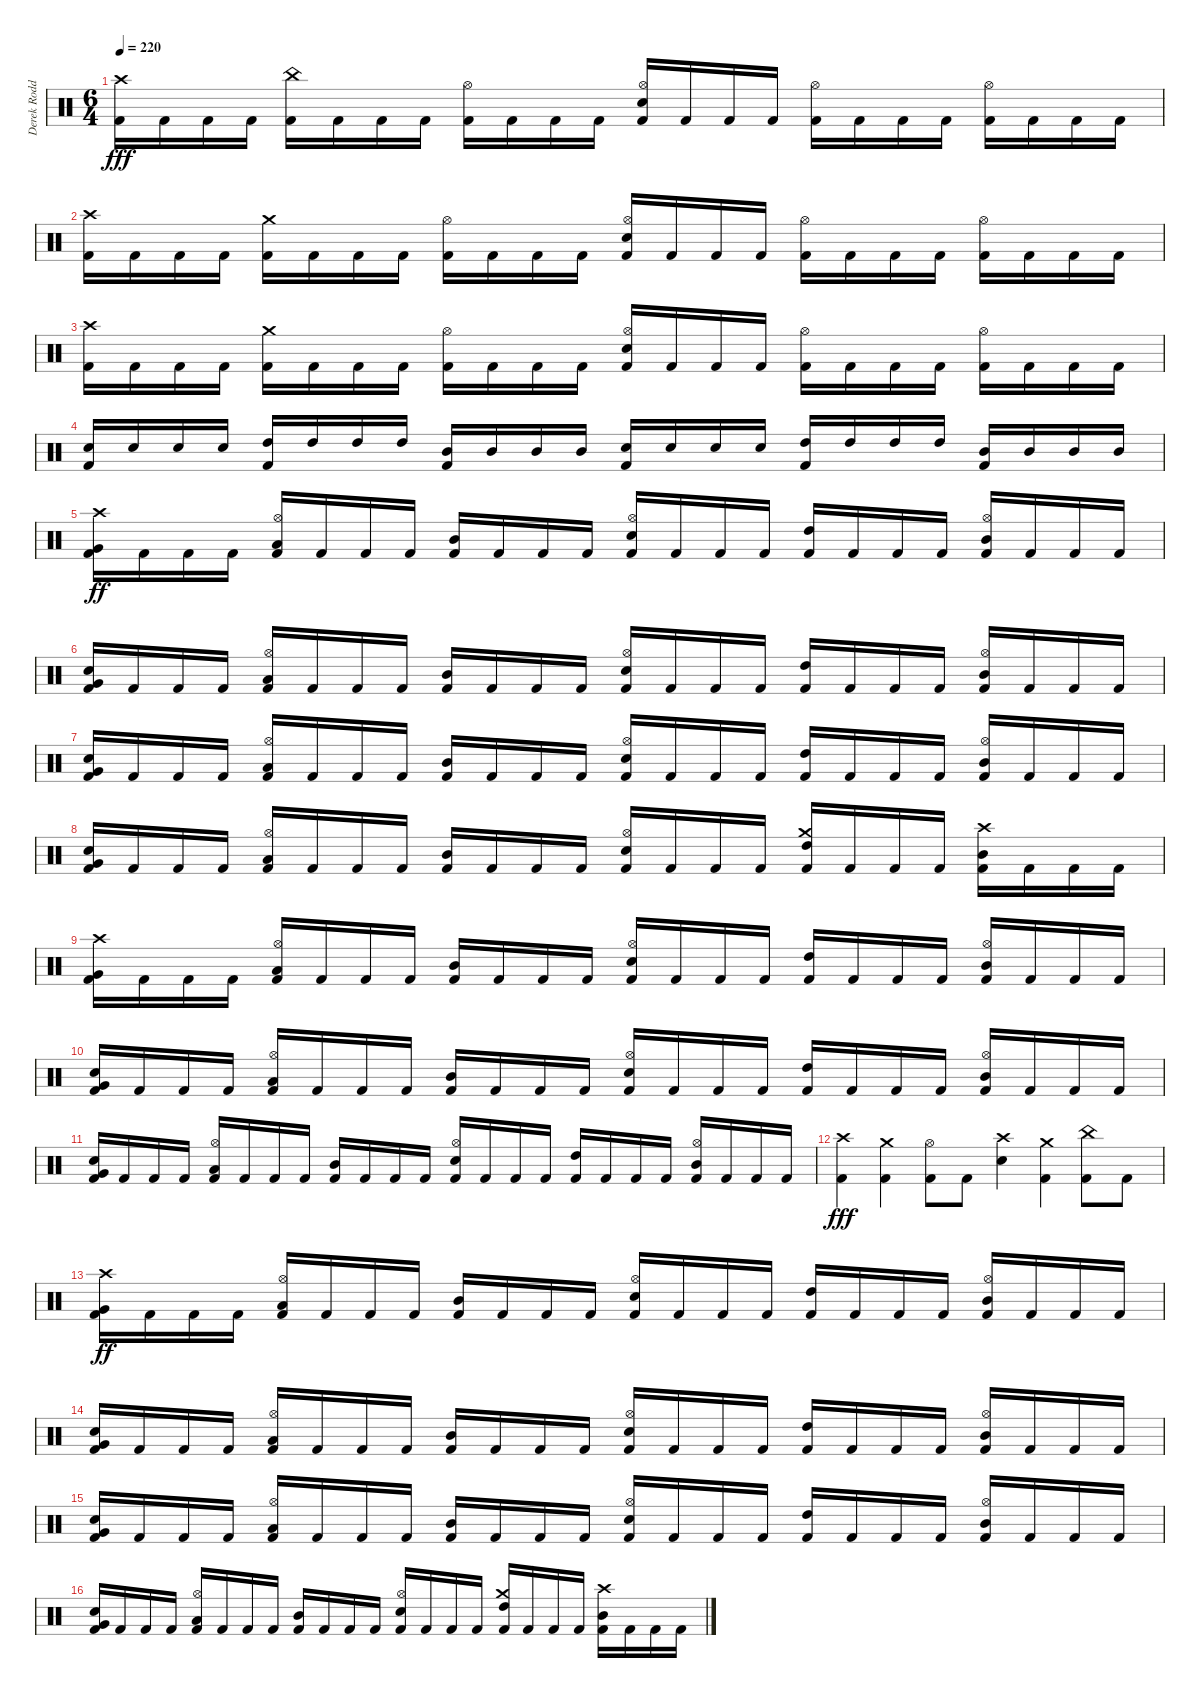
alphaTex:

\track ("Derek Roddy" "Derek Rodd") {instrument percussion}
\staff {score}
\articulation defaults
\ts (6 4)
\tempo 220
\clef neutral
\ks c
("Crash high (hit)" "Kick (hit) 2").16{dy fff} "Kick (hit) 2".16 "Kick (hit) 2".16 "Kick (hit) 2".16 ("China (hit)" "Kick (hit) 2").16 "Kick (hit) 2".16 "Kick (hit) 2".16 "Kick (hit) 2".16 ("Hi-Hat (open)" "Kick (hit) 2").16 "Kick (hit) 2".16 "Kick (hit) 2".16 "Kick (hit) 2".16 ("Hi-Hat (open)" "Snare (hit) 2" "Kick (hit) 2").16 "Kick (hit) 2".16 "Kick (hit) 2".16 "Kick (hit) 2".16 ("Hi-Hat (open)" "Kick (hit) 2").16 "Kick (hit) 2".16 "Kick (hit) 2".16 "Kick (hit) 2".16 ("Hi-Hat (open)" "Kick (hit) 2").16 "Kick (hit) 2".16 "Kick (hit) 2".16 "Kick (hit) 2".16 |
("Crash high (hit)" "Kick (hit) 2").16 "Kick (hit) 2".16 "Kick (hit) 2".16 "Kick (hit) 2".16 ("Crash medium (hit)" "Kick (hit) 2").16 "Kick (hit) 2".16 "Kick (hit) 2".16 "Kick (hit) 2".16 ("Hi-Hat (open)" "Kick (hit) 2").16 "Kick (hit) 2".16 "Kick (hit) 2".16 "Kick (hit) 2".16 ("Hi-Hat (open)" "Snare (hit) 2" "Kick (hit) 2").16 "Kick (hit) 2".16 "Kick (hit) 2".16 "Kick (hit) 2".16 ("Hi-Hat (open)" "Kick (hit) 2").16 "Kick (hit) 2".16 "Kick (hit) 2".16 "Kick (hit) 2".16 ("Hi-Hat (open)" "Kick (hit) 2").16 "Kick (hit) 2".16 "Kick (hit) 2".16 "Kick (hit) 2".16 |
("Crash high (hit)" "Kick (hit) 2").16 "Kick (hit) 2".16 "Kick (hit) 2".16 "Kick (hit) 2".16 ("Crash medium (hit)" "Kick (hit) 2").16 "Kick (hit) 2".16 "Kick (hit) 2".16 "Kick (hit) 2".16 ("Hi-Hat (open)" "Kick (hit) 2").16 "Kick (hit) 2".16 "Kick (hit) 2".16 "Kick (hit) 2".16 ("Hi-Hat (open)" "Snare (hit) 2" "Kick (hit) 2").16 "Kick (hit) 2".16 "Kick (hit) 2".16 "Kick (hit) 2".16 ("Hi-Hat (open)" "Kick (hit) 2").16 "Kick (hit) 2".16 "Kick (hit) 2".16 "Kick (hit) 2".16 ("Hi-Hat (open)" "Kick (hit) 2").16 "Kick (hit) 2".16 "Kick (hit) 2".16 "Kick (hit) 2".16 |
("Snare (hit) 2" "Kick (hit) 2").16 "Snare (hit) 2".16 "Snare (hit) 2".16 "Snare (hit) 2".16 ("High Tom (hit)" "Kick (hit) 2").16 "High Tom (hit)".16 "High Tom (hit)".16 "High Tom (hit)".16 ("Mid Tom (hit)" "Kick (hit) 2").16 "Mid Tom (hit)".16 "Mid Tom (hit)".16 "Mid Tom (hit)".16 ("Snare (hit) 2" "Kick (hit) 2").16 "Snare (hit) 2".16 "Snare (hit) 2".16 "Snare (hit) 2".16 ("High Tom (hit)" "Kick (hit) 2").16 "High Tom (hit)".16 "High Tom (hit)".16 "High Tom (hit)".16 ("Mid Tom (hit)" "Kick (hit) 2").16 "Mid Tom (hit)".16 "Mid Tom (hit)".16 "Mid Tom (hit)".16 |
("Very Low Tom (hit)" "Crash high (hit)" "Kick (hit) 2").16{dy ff} "Kick (hit) 2".16 "Kick (hit) 2".16 "Kick (hit) 2".16 ("Hi-Hat (open)" "Low Tom (hit)" "Kick (hit) 2").16 "Kick (hit) 2".16 "Kick (hit) 2".16 "Kick (hit) 2".16 ("Mid Tom (hit)" "Kick (hit) 2").16 "Kick (hit) 2".16 "Kick (hit) 2".16 "Kick (hit) 2".16 ("Hi-Hat (open)" "Snare (hit) 2" "Kick (hit) 2").16 "Kick (hit) 2".16 "Kick (hit) 2".16 "Kick (hit) 2".16 ("High Tom (hit)" "Kick (hit) 2").16 "Kick (hit) 2".16 "Kick (hit) 2".16 "Kick (hit) 2".16 ("Hi-Hat (open)" "Mid Tom (hit)" "Kick (hit) 2").16 "Kick (hit) 2".16 "Kick (hit) 2".16 "Kick (hit) 2".16 |
("Very Low Tom (hit)" "Snare (hit)" "Kick (hit) 2").16 "Kick (hit) 2".16 "Kick (hit) 2".16 "Kick (hit) 2".16 ("Hi-Hat (open)" "Low Tom (hit)" "Kick (hit) 2").16 "Kick (hit) 2".16 "Kick (hit) 2".16 "Kick (hit) 2".16 ("Mid Tom (hit)" "Kick (hit) 2").16 "Kick (hit) 2".16 "Kick (hit) 2".16 "Kick (hit) 2".16 ("Hi-Hat (open)" "Snare (hit) 2" "Kick (hit) 2").16 "Kick (hit) 2".16 "Kick (hit) 2".16 "Kick (hit) 2".16 ("High Tom (hit)" "Kick (hit) 2").16 "Kick (hit) 2".16 "Kick (hit) 2".16 "Kick (hit) 2".16 ("Hi-Hat (open)" "Mid Tom (hit)" "Kick (hit) 2").16 "Kick (hit) 2".16 "Kick (hit) 2".16 "Kick (hit) 2".16 |
("Very Low Tom (hit)" "Snare (hit)" "Kick (hit) 2").16 "Kick (hit) 2".16 "Kick (hit) 2".16 "Kick (hit) 2".16 ("Hi-Hat (open)" "Low Tom (hit)" "Kick (hit) 2").16 "Kick (hit) 2".16 "Kick (hit) 2".16 "Kick (hit) 2".16 ("Mid Tom (hit)" "Kick (hit) 2").16 "Kick (hit) 2".16 "Kick (hit) 2".16 "Kick (hit) 2".16 ("Hi-Hat (open)" "Snare (hit) 2" "Kick (hit) 2").16 "Kick (hit) 2".16 "Kick (hit) 2".16 "Kick (hit) 2".16 ("High Tom (hit)" "Kick (hit) 2").16 "Kick (hit) 2".16 "Kick (hit) 2".16 "Kick (hit) 2".16 ("Hi-Hat (open)" "Mid Tom (hit)" "Kick (hit) 2").16 "Kick (hit) 2".16 "Kick (hit) 2".16 "Kick (hit) 2".16 |
("Very Low Tom (hit)" "Snare (hit)" "Kick (hit) 2").16 "Kick (hit) 2".16 "Kick (hit) 2".16 "Kick (hit) 2".16 ("Hi-Hat (open)" "Low Tom (hit)" "Kick (hit) 2").16 "Kick (hit) 2".16 "Kick (hit) 2".16 "Kick (hit) 2".16 ("Mid Tom (hit)" "Kick (hit) 2").16 "Kick (hit) 2".16 "Kick (hit) 2".16 "Kick (hit) 2".16 ("Hi-Hat (open)" "Snare (hit) 2" "Kick (hit) 2").16 "Kick (hit) 2".16 "Kick (hit) 2".16 "Kick (hit) 2".16 ("Crash medium (hit)" "High Tom (hit)" "Kick (hit) 2").16 "Kick (hit) 2".16 "Kick (hit) 2".16 "Kick (hit) 2".16 ("Crash high (hit)" "Mid Tom (hit)" "Kick (hit) 2").16 "Kick (hit) 2".16 "Kick (hit) 2".16 "Kick (hit) 2".16 |
("Very Low Tom (hit)" "Crash high (hit)" "Kick (hit) 2").16 "Kick (hit) 2".16 "Kick (hit) 2".16 "Kick (hit) 2".16 ("Hi-Hat (open)" "Low Tom (hit)" "Kick (hit) 2").16 "Kick (hit) 2".16 "Kick (hit) 2".16 "Kick (hit) 2".16 ("Mid Tom (hit)" "Kick (hit) 2").16 "Kick (hit) 2".16 "Kick (hit) 2".16 "Kick (hit) 2".16 ("Hi-Hat (open)" "Snare (hit) 2" "Kick (hit) 2").16 "Kick (hit) 2".16 "Kick (hit) 2".16 "Kick (hit) 2".16 ("High Tom (hit)" "Kick (hit) 2").16 "Kick (hit) 2".16 "Kick (hit) 2".16 "Kick (hit) 2".16 ("Hi-Hat (open)" "Mid Tom (hit)" "Kick (hit) 2").16 "Kick (hit) 2".16 "Kick (hit) 2".16 "Kick (hit) 2".16 |
("Very Low Tom (hit)" "Snare (hit)" "Kick (hit) 2").16 "Kick (hit) 2".16 "Kick (hit) 2".16 "Kick (hit) 2".16 ("Hi-Hat (open)" "Low Tom (hit)" "Kick (hit) 2").16 "Kick (hit) 2".16 "Kick (hit) 2".16 "Kick (hit) 2".16 ("Mid Tom (hit)" "Kick (hit) 2").16 "Kick (hit) 2".16 "Kick (hit) 2".16 "Kick (hit) 2".16 ("Hi-Hat (open)" "Snare (hit) 2" "Kick (hit) 2").16 "Kick (hit) 2".16 "Kick (hit) 2".16 "Kick (hit) 2".16 ("High Tom (hit)" "Kick (hit) 2").16 "Kick (hit) 2".16 "Kick (hit) 2".16 "Kick (hit) 2".16 ("Hi-Hat (open)" "Mid Tom (hit)" "Kick (hit) 2").16 "Kick (hit) 2".16 "Kick (hit) 2".16 "Kick (hit) 2".16 |
("Very Low Tom (hit)" "Snare (hit)" "Kick (hit) 2").16 "Kick (hit) 2".16 "Kick (hit) 2".16 "Kick (hit) 2".16 ("Hi-Hat (open)" "Low Tom (hit)" "Kick (hit) 2").16 "Kick (hit) 2".16 "Kick (hit) 2".16 "Kick (hit) 2".16 ("Mid Tom (hit)" "Kick (hit) 2").16 "Kick (hit) 2".16 "Kick (hit) 2".16 "Kick (hit) 2".16 ("Hi-Hat (open)" "Snare (hit) 2" "Kick (hit) 2").16 "Kick (hit) 2".16 "Kick (hit) 2".16 "Kick (hit) 2".16 ("High Tom (hit)" "Kick (hit) 2").16 "Kick (hit) 2".16 "Kick (hit) 2".16 "Kick (hit) 2".16 ("Hi-Hat (open)" "Mid Tom (hit)" "Kick (hit) 2").16 "Kick (hit) 2".16 "Kick (hit) 2".16 "Kick (hit) 2".16 |
("Crash high (hit)" "Kick (hit) 2").4{dy fff} ("Crash medium (hit)" "Kick (hit) 2").4 ("Hi-Hat (open)" "Kick (hit) 2").8 "Kick (hit) 2".8 ("Crash high (hit)" "Snare (hit) 2").4 ("Crash medium (hit)" "Kick (hit) 2").4 ("China (hit)" "Kick (hit) 2").8 "Kick (hit) 2".8 |
("Very Low Tom (hit)" "Crash high (hit)" "Kick (hit) 2").16{dy ff} "Kick (hit) 2".16 "Kick (hit) 2".16 "Kick (hit) 2".16 ("Hi-Hat (open)" "Low Tom (hit)" "Kick (hit) 2").16 "Kick (hit) 2".16 "Kick (hit) 2".16 "Kick (hit) 2".16 ("Mid Tom (hit)" "Kick (hit) 2").16 "Kick (hit) 2".16 "Kick (hit) 2".16 "Kick (hit) 2".16 ("Hi-Hat (open)" "Snare (hit) 2" "Kick (hit) 2").16 "Kick (hit) 2".16 "Kick (hit) 2".16 "Kick (hit) 2".16 ("High Tom (hit)" "Kick (hit) 2").16 "Kick (hit) 2".16 "Kick (hit) 2".16 "Kick (hit) 2".16 ("Hi-Hat (open)" "Mid Tom (hit)" "Kick (hit) 2").16 "Kick (hit) 2".16 "Kick (hit) 2".16 "Kick (hit) 2".16 |
("Very Low Tom (hit)" "Snare (hit)" "Kick (hit) 2").16 "Kick (hit) 2".16 "Kick (hit) 2".16 "Kick (hit) 2".16 ("Hi-Hat (open)" "Low Tom (hit)" "Kick (hit) 2").16 "Kick (hit) 2".16 "Kick (hit) 2".16 "Kick (hit) 2".16 ("Mid Tom (hit)" "Kick (hit) 2").16 "Kick (hit) 2".16 "Kick (hit) 2".16 "Kick (hit) 2".16 ("Hi-Hat (open)" "Snare (hit) 2" "Kick (hit) 2").16 "Kick (hit) 2".16 "Kick (hit) 2".16 "Kick (hit) 2".16 ("High Tom (hit)" "Kick (hit) 2").16 "Kick (hit) 2".16 "Kick (hit) 2".16 "Kick (hit) 2".16 ("Hi-Hat (open)" "Mid Tom (hit)" "Kick (hit) 2").16 "Kick (hit) 2".16 "Kick (hit) 2".16 "Kick (hit) 2".16 |
("Very Low Tom (hit)" "Snare (hit)" "Kick (hit) 2").16 "Kick (hit) 2".16 "Kick (hit) 2".16 "Kick (hit) 2".16 ("Hi-Hat (open)" "Low Tom (hit)" "Kick (hit) 2").16 "Kick (hit) 2".16 "Kick (hit) 2".16 "Kick (hit) 2".16 ("Mid Tom (hit)" "Kick (hit) 2").16 "Kick (hit) 2".16 "Kick (hit) 2".16 "Kick (hit) 2".16 ("Hi-Hat (open)" "Snare (hit) 2" "Kick (hit) 2").16 "Kick (hit) 2".16 "Kick (hit) 2".16 "Kick (hit) 2".16 ("High Tom (hit)" "Kick (hit) 2").16 "Kick (hit) 2".16 "Kick (hit) 2".16 "Kick (hit) 2".16 ("Hi-Hat (open)" "Mid Tom (hit)" "Kick (hit) 2").16 "Kick (hit) 2".16 "Kick (hit) 2".16 "Kick (hit) 2".16 |
("Very Low Tom (hit)" "Snare (hit)" "Kick (hit) 2").16 "Kick (hit) 2".16 "Kick (hit) 2".16 "Kick (hit) 2".16 ("Hi-Hat (open)" "Low Tom (hit)" "Kick (hit) 2").16 "Kick (hit) 2".16 "Kick (hit) 2".16 "Kick (hit) 2".16 ("Mid Tom (hit)" "Kick (hit) 2").16 "Kick (hit) 2".16 "Kick (hit) 2".16 "Kick (hit) 2".16 ("Hi-Hat (open)" "Snare (hit) 2" "Kick (hit) 2").16 "Kick (hit) 2".16 "Kick (hit) 2".16 "Kick (hit) 2".16 ("Crash medium (hit)" "High Tom (hit)" "Kick (hit) 2").16 "Kick (hit) 2".16 "Kick (hit) 2".16 "Kick (hit) 2".16 ("Crash high (hit)" "Mid Tom (hit)" "Kick (hit) 2").16 "Kick (hit) 2".16 "Kick (hit) 2".16 "Kick (hit) 2".16
